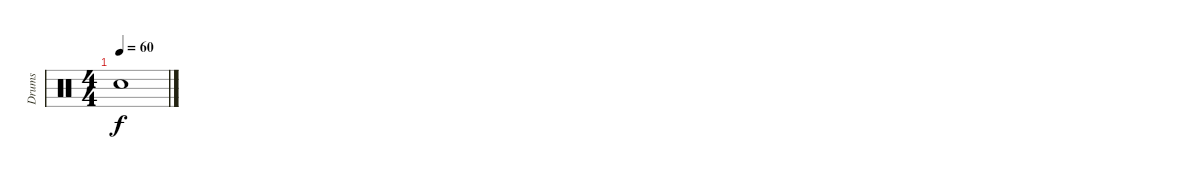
\track ("Drums" "Drums") {instrument percussion}
\staff {score}
\articulation defaults
\ts (4 4)
\tempo 60
\clef neutral
\ks c "Snare (hit)"{t}.1{dy f}
